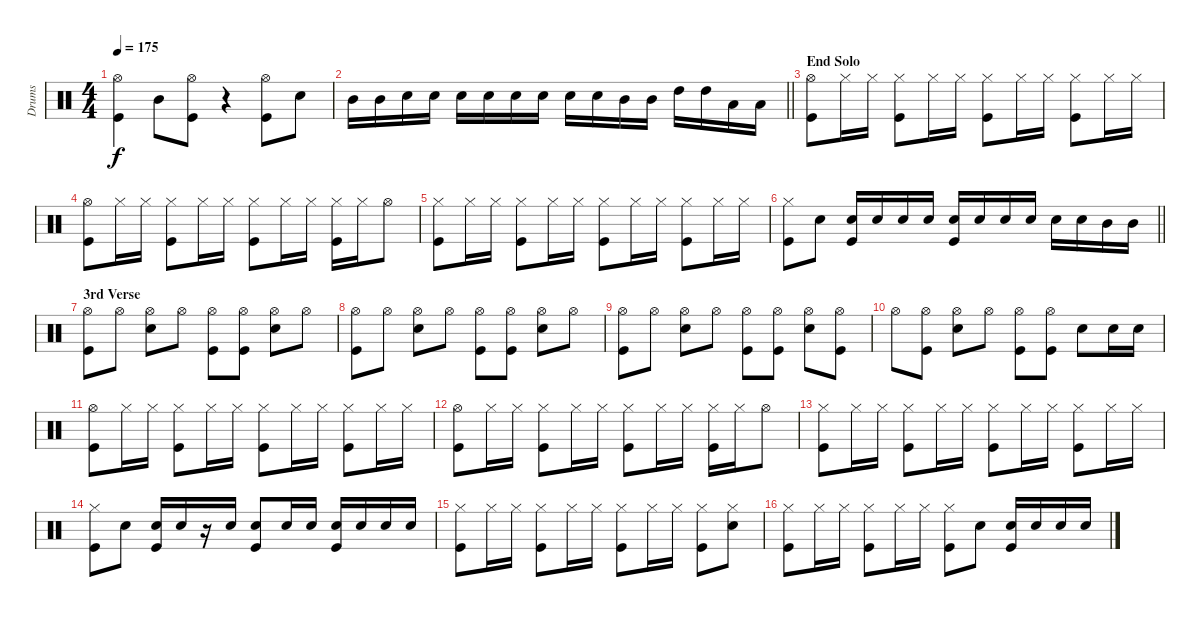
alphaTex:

\track ("Drums" "Drums") {instrument percussion}
\staff {score}
\articulation defaults
\ts (4 4)
\tempo 175
\clef neutral
\ks c
("Hi-Hat (open)" "Kick (hit)").4{dy f} "Mid Tom (hit)".8 ("Hi-Hat (open)" "Kick (hit)").8 r.4 ("Hi-Hat (open)" "Kick (hit)").8 "Snare (hit) 2".8 |
\barLineRight lightlight "Mid Tom (hit)".16 "Mid Tom (hit)".16 "Snare (hit) 2".16 "Snare (hit) 2".16 "Snare (hit) 2".16 "Snare (hit) 2".16 "Snare (hit) 2".16 "Snare (hit) 2".16 "Snare (hit) 2".16 "Snare (hit) 2".16 "Mid Tom (hit)".16 "Mid Tom (hit)".16 "High Tom (hit)".16 "High Tom (hit)".16 "Low Tom (hit)".16 "Low Tom (hit)".16
|
\section ("" "End Solo")
("Hi-Hat (open)" "Kick (hit)").8 "Hi-Hat (closed)".16 "Hi-Hat (closed)".16 ("Hi-Hat (closed)" "Kick (hit)").8 "Hi-Hat (closed)".16 "Hi-Hat (closed)".16 ("Hi-Hat (closed)" "Kick (hit)").8 "Hi-Hat (closed)".16 "Hi-Hat (closed)".16 ("Hi-Hat (closed)" "Kick (hit)").8 "Hi-Hat (closed)".16 "Hi-Hat (closed)".16 |
("Hi-Hat (open)" "Kick (hit)").8 "Hi-Hat (closed)".16 "Hi-Hat (closed)".16 ("Hi-Hat (closed)" "Kick (hit)").8 "Hi-Hat (closed)".16 "Hi-Hat (closed)".16 ("Hi-Hat (closed)" "Kick (hit)").8 "Hi-Hat (closed)".16 "Hi-Hat (closed)".16 ("Hi-Hat (closed)" "Kick (hit)").16 "Hi-Hat (closed)".16 "Hi-Hat (open)".8 |
("Hi-Hat (closed)" "Kick (hit)").8 "Hi-Hat (closed)".16 "Hi-Hat (closed)".16 ("Hi-Hat (closed)" "Kick (hit)").8 "Hi-Hat (closed)".16 "Hi-Hat (closed)".16 ("Hi-Hat (closed)" "Kick (hit)").8 "Hi-Hat (closed)".16 "Hi-Hat (closed)".16 ("Hi-Hat (closed)" "Kick (hit)").8 "Hi-Hat (closed)".16 "Hi-Hat (closed)".16 |
\barLineRight lightlight
("Hi-Hat (closed)" "Kick (hit)").8 "Snare (hit) 2".8 ("Snare (hit) 2" "Kick (hit)").16 "Snare (hit) 2".16 "Snare (hit) 2".16 "Snare (hit) 2".16 ("Snare (hit) 2" "Kick (hit)").16 "Snare (hit) 2".16 "Snare (hit) 2".16 "Snare (hit) 2".16 "Snare (hit) 2".16 "Snare (hit) 2".16 "Mid Tom (hit)".16 "Mid Tom (hit)".16 |
\section ("" "3rd Verse")
("Hi-Hat (open)" "Kick (hit)").8 "Hi-Hat (open)".8 ("Hi-Hat (open)" "Snare (hit) 2").8 "Hi-Hat (open)".8 ("Hi-Hat (open)" "Kick (hit)").8 ("Hi-Hat (open)" "Kick (hit)").8 ("Hi-Hat (open)" "Snare (hit) 2").8 "Hi-Hat (open)".8 |
("Hi-Hat (open)" "Kick (hit)").8 "Hi-Hat (open)".8 ("Hi-Hat (open)" "Snare (hit) 2").8 "Hi-Hat (open)".8 ("Hi-Hat (open)" "Kick (hit)").8 ("Hi-Hat (open)" "Kick (hit)").8 ("Hi-Hat (open)" "Snare (hit) 2").8 "Hi-Hat (open)".8 |
("Hi-Hat (open)" "Kick (hit)").8 "Hi-Hat (open)".8 ("Hi-Hat (open)" "Snare (hit) 2").8 "Hi-Hat (open)".8 ("Hi-Hat (open)" "Kick (hit)").8 ("Hi-Hat (open)" "Kick (hit)").8 ("Hi-Hat (open)" "Snare (hit) 2").8 ("Hi-Hat (open)" "Kick (hit)").8 |
"Hi-Hat (open)".8 ("Hi-Hat (open)" "Kick (hit)").8 ("Hi-Hat (open)" "Snare (hit) 2").8 "Hi-Hat (open)".8 ("Hi-Hat (open)" "Kick (hit)").8 ("Hi-Hat (open)" "Kick (hit)").8 "Snare (hit) 2".8 "Snare (hit) 2".16 "Snare (hit) 2".16 |
("Hi-Hat (open)" "Kick (hit)").8 "Hi-Hat (closed)".16 "Hi-Hat (closed)".16 ("Hi-Hat (closed)" "Kick (hit)").8 "Hi-Hat (closed)".16 "Hi-Hat (closed)".16 ("Hi-Hat (closed)" "Kick (hit)").8 "Hi-Hat (closed)".16 "Hi-Hat (closed)".16 ("Hi-Hat (closed)" "Kick (hit)").8 "Hi-Hat (closed)".16 "Hi-Hat (closed)".16 |
("Hi-Hat (open)" "Kick (hit)").8 "Hi-Hat (closed)".16 "Hi-Hat (closed)".16 ("Hi-Hat (closed)" "Kick (hit)").8 "Hi-Hat (closed)".16 "Hi-Hat (closed)".16 ("Hi-Hat (closed)" "Kick (hit)").8 "Hi-Hat (closed)".16 "Hi-Hat (closed)".16 ("Hi-Hat (closed)" "Kick (hit)").16 "Hi-Hat (closed)".16 "Hi-Hat (open)".8 |
("Hi-Hat (closed)" "Kick (hit)").8 "Hi-Hat (closed)".16 "Hi-Hat (closed)".16 ("Hi-Hat (closed)" "Kick (hit)").8 "Hi-Hat (closed)".16 "Hi-Hat (closed)".16 ("Hi-Hat (closed)" "Kick (hit)").8 "Hi-Hat (closed)".16 "Hi-Hat (closed)".16 ("Hi-Hat (closed)" "Kick (hit)").8 "Hi-Hat (closed)".16 "Hi-Hat (closed)".16 |
("Hi-Hat (closed)" "Kick (hit)").8 "Snare (hit) 2".8 ("Snare (hit) 2" "Kick (hit)").16 "Snare (hit) 2".16 r.16 "Snare (hit) 2".16 ("Snare (hit) 2" "Kick (hit)").8 "Snare (hit) 2".16 "Snare (hit) 2".16 ("Snare (hit) 2" "Kick (hit)").16 "Snare (hit) 2".16 "Snare (hit) 2".16 "Snare (hit) 2".16 |
("Hi-Hat (closed)" "Kick (hit)").8 "Hi-Hat (closed)".16 "Hi-Hat (closed)".16 ("Hi-Hat (closed)" "Kick (hit)").8 "Hi-Hat (closed)".16 "Hi-Hat (closed)".16 ("Hi-Hat (closed)" "Kick (hit)").8 "Hi-Hat (closed)".16 "Hi-Hat (closed)".16 ("Hi-Hat (closed)" "Kick (hit)").8 ("Hi-Hat (closed)" "Snare (hit) 2").8 |
("Hi-Hat (closed)" "Kick (hit)").8 "Hi-Hat (closed)".16 "Hi-Hat (closed)".16 ("Hi-Hat (closed)" "Kick (hit)").8 "Hi-Hat (closed)".16 "Hi-Hat (closed)".16 ("Hi-Hat (closed)" "Kick (hit)").8 "Snare (hit) 2".8 ("Snare (hit) 2" "Kick (hit)").16 "Snare (hit) 2".16 "Snare (hit) 2".16 "Snare (hit) 2".16
